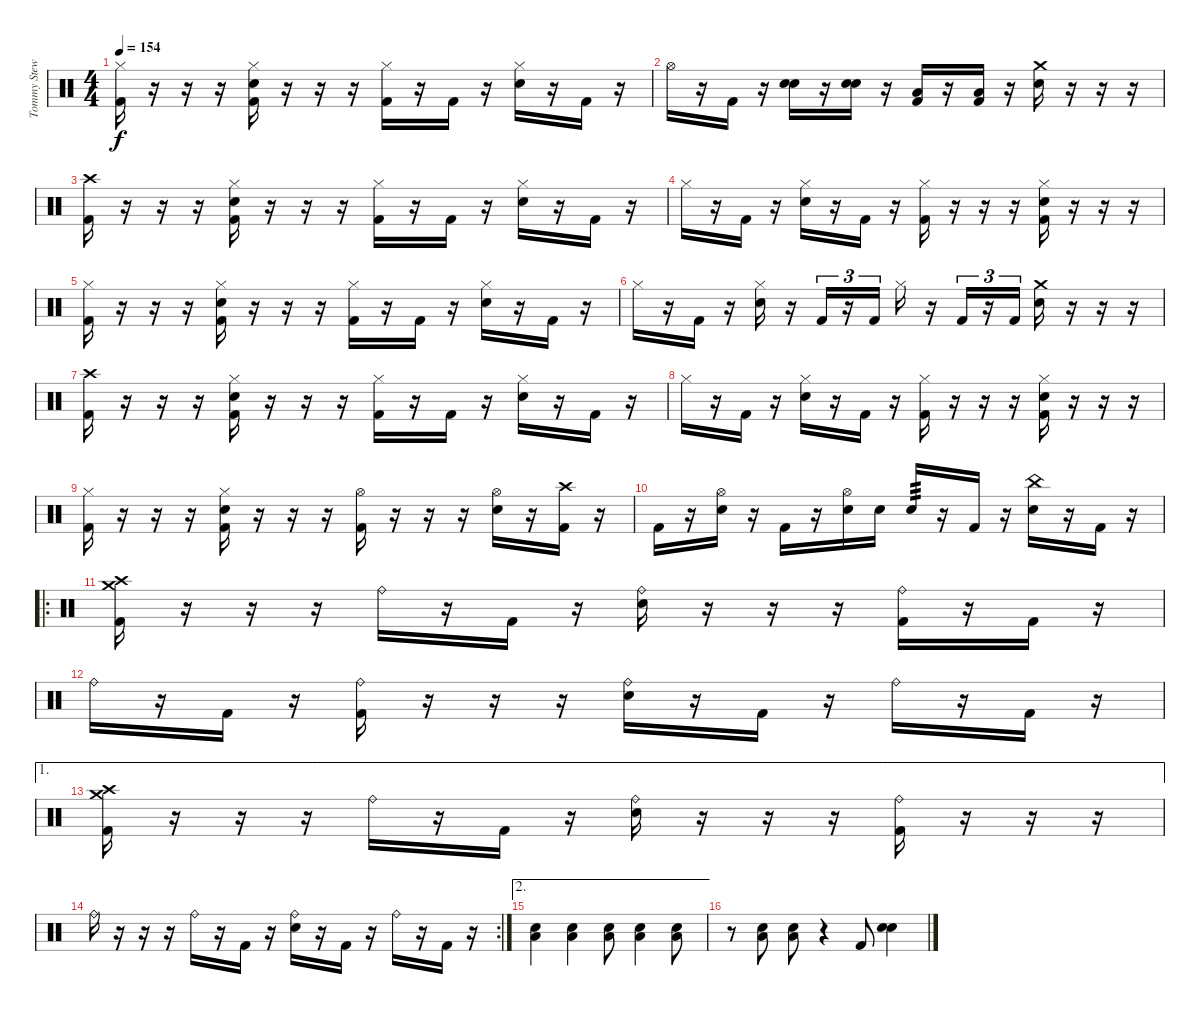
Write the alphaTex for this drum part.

\track ("Tommy Stewart" "Tommy Stew") {instrument percussion}
\staff {score}
\articulation defaults
\ts (4 4)
\tempo 154
\clef neutral
\ks c
("Hi-Hat (closed)" "Kick (hit) 2").16{dy f} r.16 r.16 r.16 ("Hi-Hat (closed)" "Snare (hit) 2" "Kick (hit) 2").16 r.16 r.16 r.16 ("Hi-Hat (closed)" "Kick (hit) 2").16 r.16 "Kick (hit) 2".16 r.16 ("Hi-Hat (closed)" "Snare (hit) 2").16 r.16 "Kick (hit) 2".16 r.16 |
"Hi-Hat (open)".16 r.16 "Kick (hit) 2".16 r.16 ("Snare (hit) 2" "Snare (hit) 2").16 r.16 ("Snare (hit) 2" "Snare (hit) 2").16 r.16 ("Low Tom (hit)" "Kick (hit) 2").16 r.16 ("Low Floor Tom (hit)" "Kick (hit) 2").16 r.16 ("Crash medium (hit)" "Snare (hit) 2").16 r.16 r.16 r.16 |
("Crash high (hit)" "Kick (hit) 2").16 r.16 r.16 r.16 ("Hi-Hat (closed)" "Snare (hit) 2" "Kick (hit) 2").16 r.16 r.16 r.16 ("Hi-Hat (closed)" "Kick (hit) 2").16 r.16 "Kick (hit) 2".16 r.16 ("Hi-Hat (closed)" "Snare (hit) 2").16 r.16 "Kick (hit) 2".16 r.16 |
"Hi-Hat (closed)".16 r.16 "Kick (hit) 2".16 r.16 ("Hi-Hat (closed)" "Snare (hit) 2").16 r.16 "Kick (hit) 2".16 r.16 ("Hi-Hat (closed)" "Kick (hit) 2").16 r.16 r.16 r.16 ("Hi-Hat (closed)" "Snare (hit) 2" "Kick (hit) 2").16 r.16 r.16 r.16 |
("Hi-Hat (closed)" "Kick (hit) 2").16 r.16 r.16 r.16 ("Hi-Hat (closed)" "Snare (hit) 2" "Kick (hit) 2").16 r.16 r.16 r.16 ("Hi-Hat (closed)" "Kick (hit) 2").16 r.16 "Kick (hit) 2".16 r.16 ("Hi-Hat (closed)" "Snare (hit) 2").16 r.16 "Kick (hit) 2".16 r.16 |
"Hi-Hat (closed)".16 r.16 "Kick (hit) 2".16 r.16 ("Hi-Hat (closed)" "Snare (hit) 2").16 r.16 "Kick (hit) 2".16{tu (3 2)} r.16{tu (3 2)} "Kick (hit) 2".16{tu (3 2)} "Hi-Hat (closed)".16 r.16 "Kick (hit) 2".16{tu (3 2)} r.16{tu (3 2)} "Kick (hit) 2".16{tu (3 2)} ("Crash medium (hit)" "Snare (hit) 2").16 r.16 r.16 r.16 |
("Crash high (hit)" "Kick (hit) 2").16 r.16 r.16 r.16 ("Hi-Hat (closed)" "Snare (hit) 2" "Kick (hit) 2").16 r.16 r.16 r.16 ("Hi-Hat (closed)" "Kick (hit) 2").16 r.16 "Kick (hit) 2".16 r.16 ("Hi-Hat (closed)" "Snare (hit) 2").16 r.16 "Kick (hit) 2".16 r.16 |
"Hi-Hat (closed)".16 r.16 "Kick (hit) 2".16 r.16 ("Hi-Hat (closed)" "Snare (hit) 2").16 r.16 "Kick (hit) 2".16 r.16 ("Hi-Hat (closed)" "Kick (hit) 2").16 r.16 r.16 r.16 ("Hi-Hat (closed)" "Snare (hit) 2" "Kick (hit) 2").16 r.16 r.16 r.16 |
("Hi-Hat (closed)" "Kick (hit) 2").16 r.16 r.16 r.16 ("Hi-Hat (closed)" "Snare (hit) 2" "Kick (hit) 2").16 r.16 r.16 r.16 ("Hi-Hat (open)" "Kick (hit) 2").16 r.16 r.16 r.16 ("Hi-Hat (open)" "Snare (hit) 2").16 r.16 ("Crash high (hit)" "Kick (hit) 2").16 r.16 |
"Kick (hit) 2".16 r.16 ("Hi-Hat (open)" "Snare (hit) 2").16 r.16 "Kick (hit) 2".16 r.16 ("Hi-Hat (open)" "Snare (hit) 2").16 "Snare (hit) 2".16 "Snare (hit) 2".16{tp 3} r.16 "Kick (hit) 2".16 r.16 ("China (hit)" "Snare (hit) 2").16 r.16 "Kick (hit) 2".16 r.16 |
\ro
("Crash high (hit)" "Crash medium (hit)" "Kick (hit) 2").16 r.16 r.16 r.16 "Ride (bell)".16 r.16 "Kick (hit) 2".16 r.16 ("Ride (bell)" "Snare (hit) 2").16 r.16 r.16 r.16 ("Ride (bell)" "Kick (hit) 2").16 r.16 "Kick (hit) 2".16 r.16 |
"Ride (bell)".16 r.16 "Kick (hit) 2".16 r.16 ("Ride (bell)" "Kick (hit) 2").16 r.16 r.16 r.16 ("Ride (bell)" "Snare (hit) 2").16 r.16 "Kick (hit) 2".16 r.16 "Ride (bell)".16 r.16 "Kick (hit) 2".16 r.16 |
\ae 1
("Crash high (hit)" "Crash medium (hit)" "Kick (hit) 2").16 r.16 r.16 r.16 "Ride (bell)".16 r.16 "Kick (hit) 2".16 r.16 ("Ride (bell)" "Snare (hit) 2").16 r.16 r.16 r.16 ("Ride (bell)" "Kick (hit) 2").16 r.16 r.16 r.16 |
\rc 2 "Ride (bell)".16
r.16 r.16 r.16 "Ride (bell)".16 r.16 "Kick (hit) 2".16 r.16 ("Ride (bell)" "Snare (hit) 2").16 r.16 "Kick (hit) 2".16 r.16 "Ride (bell)".16 r.16 "Kick (hit) 2".16 r.16 |
\ae 2
("Snare (hit) 2" "Low Tom (hit)").4 ("Snare (hit) 2" "Low Tom (hit)").4 ("Snare (hit) 2" "Low Tom (hit)").8 ("Snare (hit) 2" "Low Tom (hit)").4 ("Snare (hit) 2" "Low Tom (hit)").8 |
r.8 ("Snare (hit) 2" "Low Tom (hit)").8 ("Snare (hit) 2" "Low Tom (hit)").8 r.4 "Kick (hit) 2".8 ("Snare (hit) 2" "Snare (hit) 2").4
